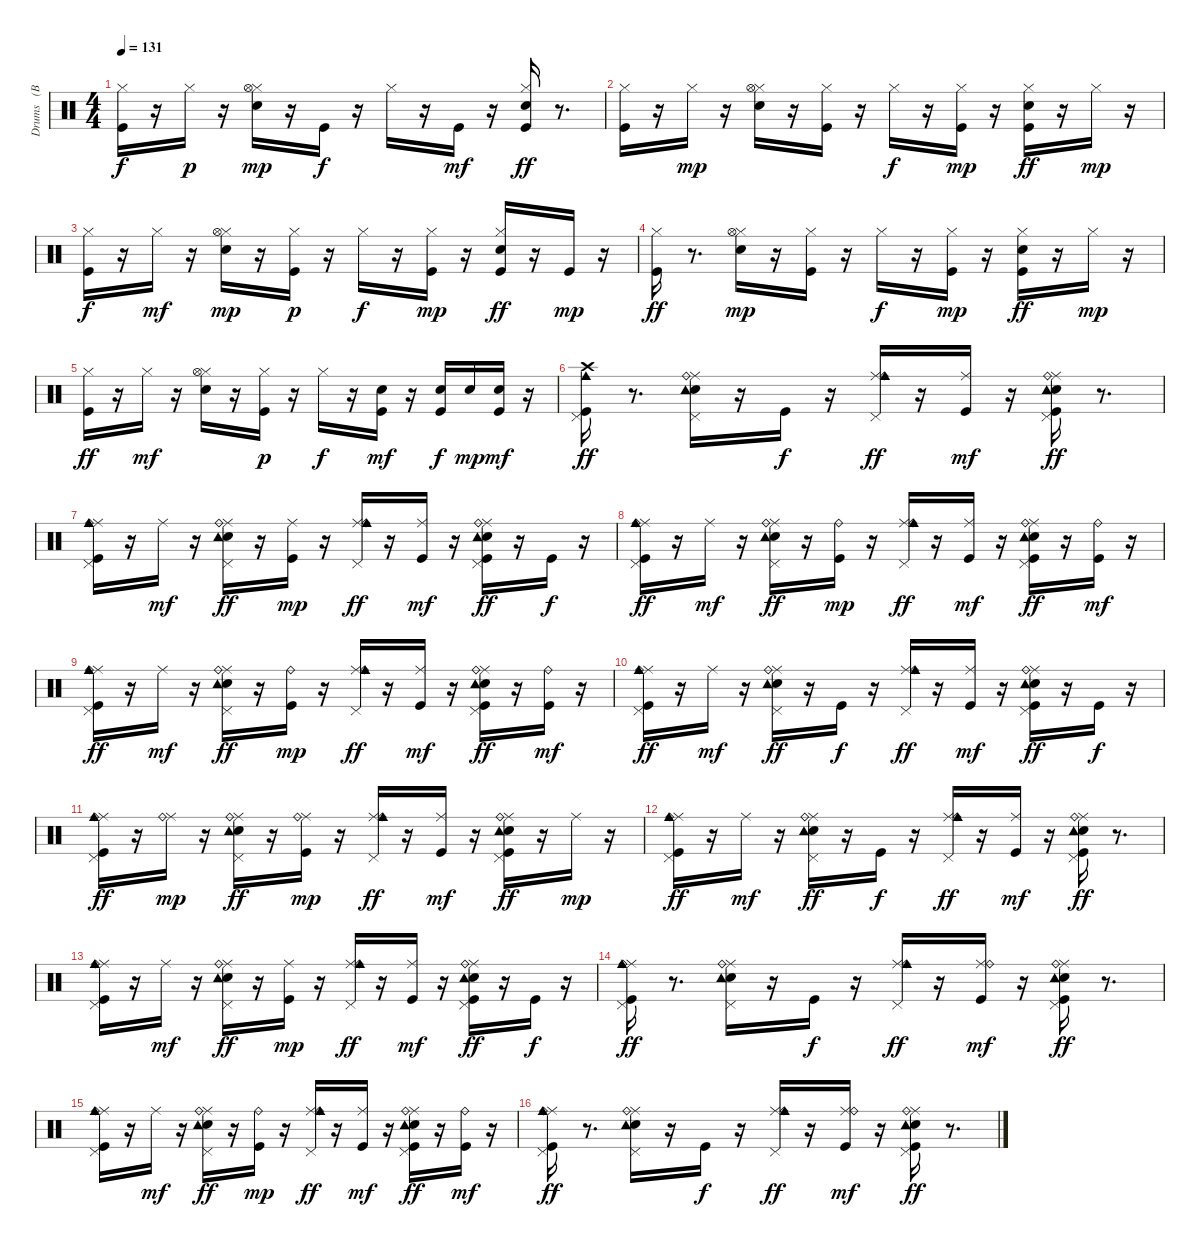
\track ("Drums   (BB)" "Drums   (B") {instrument percussion}
\staff {score}
\articulation defaults
\ts (4 4)
\tempo 131
\clef neutral
\ks c
("Kick (hit)" "Hi-Hat (closed)").16{dy f} r.16 "Hi-Hat (closed)".16{dy p} r.16 ("Snare (hit) 2" "Hi-Hat (closed)" "Hi-Hat (open)").16{dy mp} r.16 "Kick (hit)".16{dy f} r.16 "Hi-Hat (closed)".16 r.16 "Kick (hit)".16{dy mf} r.16 ("Kick (hit)" "Snare (hit) 2" "Hi-Hat (closed)").16{dy ff} r.8{d} |
("Kick (hit)" "Hi-Hat (closed)").16 r.16 "Hi-Hat (closed)".16{dy mp} r.16 ("Snare (hit) 2" "Hi-Hat (closed)" "Hi-Hat (open)").16 r.16 ("Kick (hit)" "Hi-Hat (closed)").16 r.16 "Hi-Hat (closed)".16{dy f} r.16 ("Kick (hit)" "Hi-Hat (closed)").16{dy mp} r.16 ("Kick (hit)" "Snare (hit) 2" "Hi-Hat (closed)").16{dy ff} r.16 "Hi-Hat (closed)".16{dy mp} r.16 |
("Kick (hit)" "Hi-Hat (closed)").16{dy f} r.16 "Hi-Hat (closed)".16{dy mf} r.16 ("Snare (hit) 2" "Hi-Hat (closed)" "Hi-Hat (open)").16{dy mp} r.16 ("Kick (hit)" "Hi-Hat (closed)").16{dy p} r.16 "Hi-Hat (closed)".16{dy f} r.16 ("Kick (hit)" "Hi-Hat (closed)").16{dy mp} r.16 ("Kick (hit)" "Snare (hit) 2" "Hi-Hat (closed)").16{dy ff} r.16 "Kick (hit)".16{dy mp} r.16 |
("Kick (hit)" "Hi-Hat (closed)").16{dy ff} r.8{d} ("Snare (hit) 2" "Hi-Hat (closed)" "Hi-Hat (open)").16{dy mp} r.16 ("Kick (hit)" "Hi-Hat (closed)").16 r.16 "Hi-Hat (closed)".16{dy f} r.16 ("Kick (hit)" "Hi-Hat (closed)").16{dy mp} r.16 ("Kick (hit)" "Snare (hit) 2" "Hi-Hat (closed)").16{dy ff} r.16 "Hi-Hat (closed)".16{dy mp} r.16 |
("Kick (hit)" "Hi-Hat (closed)").16{dy ff} r.16 "Hi-Hat (closed)".16{dy mf} r.16 ("Snare (hit) 2" "Hi-Hat (closed)" "Hi-Hat (open)").16 r.16 ("Kick (hit)" "Hi-Hat (closed)").16{dy p} r.16 "Hi-Hat (closed)".16{dy f} r.16 ("Kick (hit)" "Snare (hit) 2").16{dy mf} r.16 ("Kick (hit)" "Snare (hit) 2").16{dy f} "Snare (hit) 2".16{dy mp} ("Kick (hit)" "Snare (hit) 2").16{dy mf} r.16 |
("Kick (hit)" "Pedal Hi-Hat (hit)" "Crash high (hit)" "Cowbell medium (hit)").16{dy ff} r.8{d} ("Snare (hit) 2" "Tambourine (hit)" "Pedal Hi-Hat (hit)" "Ride (middle)" "Ride (bell)").16 r.16 "Kick (hit)".16{dy f} r.16 ("Pedal Hi-Hat (hit)" "Ride (middle)" "Ride (bell)" "Cowbell medium (hit)").16{dy ff} r.16 ("Kick (hit)" "Ride (middle)").16{dy mf} r.16 ("Kick (hit)" "Snare (hit) 2" "Tambourine (hit)" "Pedal Hi-Hat (hit)" "Ride (middle)" "Ride (bell)").16{dy ff} r.8{d} |
("Kick (hit)" "Pedal Hi-Hat (hit)" "Ride (middle)" "Ride (bell)" "Cowbell medium (hit)").16 r.16 "Ride (middle)".16{dy mf} r.16 ("Snare (hit) 2" "Tambourine (hit)" "Pedal Hi-Hat (hit)" "Ride (middle)" "Ride (bell)").16{dy ff} r.16 ("Kick (hit)" "Ride (middle)").16{dy mp} r.16 ("Pedal Hi-Hat (hit)" "Ride (middle)" "Ride (bell)" "Cowbell medium (hit)").16{dy ff} r.16 ("Kick (hit)" "Ride (middle)").16{dy mf} r.16 ("Kick (hit)" "Snare (hit) 2" "Tambourine (hit)" "Pedal Hi-Hat (hit)" "Ride (middle)" "Ride (bell)").16{dy ff} r.16 "Kick (hit)".16{dy f} r.16 |
("Kick (hit)" "Pedal Hi-Hat (hit)" "Ride (middle)" "Ride (bell)" "Cowbell medium (hit)").16{dy ff} r.16 "Ride (middle)".16{dy mf} r.16 ("Snare (hit) 2" "Tambourine (hit)" "Pedal Hi-Hat (hit)" "Ride (middle)" "Ride (bell)").16{dy ff} r.16 ("Kick (hit)" "Ride (bell)").16{dy mp} r.16 ("Pedal Hi-Hat (hit)" "Ride (middle)" "Ride (bell)" "Cowbell medium (hit)").16{dy ff} r.16 ("Kick (hit)" "Ride (middle)").16{dy mf} r.16 ("Kick (hit)" "Snare (hit) 2" "Tambourine (hit)" "Pedal Hi-Hat (hit)" "Ride (middle)" "Ride (bell)").16{dy ff} r.16 ("Kick (hit)" "Ride (bell)").16{dy mf} r.16 |
("Kick (hit)" "Pedal Hi-Hat (hit)" "Ride (middle)" "Ride (bell)" "Cowbell medium (hit)").16{dy ff} r.16 "Ride (middle)".16{dy mf} r.16 ("Snare (hit) 2" "Tambourine (hit)" "Pedal Hi-Hat (hit)" "Ride (middle)" "Ride (bell)").16{dy ff} r.16 ("Kick (hit)" "Ride (bell)").16{dy mp} r.16 ("Pedal Hi-Hat (hit)" "Ride (middle)" "Ride (bell)" "Cowbell medium (hit)").16{dy ff} r.16 ("Kick (hit)" "Ride (middle)").16{dy mf} r.16 ("Kick (hit)" "Snare (hit) 2" "Tambourine (hit)" "Pedal Hi-Hat (hit)" "Ride (middle)" "Ride (bell)").16{dy ff} r.16 ("Kick (hit)" "Ride (bell)").16{dy mf} r.16 |
("Kick (hit)" "Pedal Hi-Hat (hit)" "Ride (middle)" "Ride (bell)" "Cowbell medium (hit)").16{dy ff} r.16 "Ride (middle)".16{dy mf} r.16 ("Snare (hit) 2" "Tambourine (hit)" "Pedal Hi-Hat (hit)" "Ride (middle)" "Ride (bell)").16{dy ff} r.16 "Kick (hit)".16{dy f} r.16 ("Pedal Hi-Hat (hit)" "Ride (middle)" "Ride (bell)" "Cowbell medium (hit)").16{dy ff} r.16 ("Kick (hit)" "Ride (middle)").16{dy mf} r.16 ("Kick (hit)" "Snare (hit) 2" "Tambourine (hit)" "Pedal Hi-Hat (hit)" "Ride (middle)" "Ride (bell)").16{dy ff} r.16 "Kick (hit)".16{dy f} r.16 |
("Kick (hit)" "Pedal Hi-Hat (hit)" "Ride (middle)" "Ride (bell)" "Cowbell medium (hit)").16{dy ff} r.16 ("Ride (middle)" "Ride (bell)").16{dy mp} r.16 ("Snare (hit) 2" "Tambourine (hit)" "Pedal Hi-Hat (hit)" "Ride (middle)" "Ride (bell)").16{dy ff} r.16 ("Kick (hit)" "Ride (middle)" "Ride (bell)").16{dy mp} r.16 ("Pedal Hi-Hat (hit)" "Ride (middle)" "Ride (bell)" "Cowbell medium (hit)").16{dy ff} r.16 ("Kick (hit)" "Ride (middle)").16{dy mf} r.16 ("Kick (hit)" "Snare (hit) 2" "Tambourine (hit)" "Pedal Hi-Hat (hit)" "Ride (middle)" "Ride (bell)").16{dy ff} r.16 "Ride (middle)".16{dy mp} r.16 |
("Kick (hit)" "Pedal Hi-Hat (hit)" "Ride (middle)" "Ride (bell)" "Cowbell medium (hit)").16{dy ff} r.16 "Ride (middle)".16{dy mf} r.16 ("Snare (hit) 2" "Tambourine (hit)" "Pedal Hi-Hat (hit)" "Ride (middle)" "Ride (bell)").16{dy ff} r.16 "Kick (hit)".16{dy f} r.16 ("Pedal Hi-Hat (hit)" "Ride (middle)" "Ride (bell)" "Cowbell medium (hit)").16{dy ff} r.16 ("Kick (hit)" "Ride (middle)").16{dy mf} r.16 ("Kick (hit)" "Snare (hit) 2" "Tambourine (hit)" "Pedal Hi-Hat (hit)" "Ride (middle)" "Ride (bell)").16{dy ff} r.8{d} |
("Kick (hit)" "Pedal Hi-Hat (hit)" "Ride (middle)" "Ride (bell)" "Cowbell medium (hit)").16 r.16 "Ride (middle)".16{dy mf} r.16 ("Snare (hit) 2" "Tambourine (hit)" "Pedal Hi-Hat (hit)" "Ride (middle)" "Ride (bell)").16{dy ff} r.16 ("Kick (hit)" "Ride (middle)").16{dy mp} r.16 ("Pedal Hi-Hat (hit)" "Ride (middle)" "Ride (bell)" "Cowbell medium (hit)").16{dy ff} r.16 ("Kick (hit)" "Ride (middle)").16{dy mf} r.16 ("Kick (hit)" "Snare (hit) 2" "Tambourine (hit)" "Pedal Hi-Hat (hit)" "Ride (middle)" "Ride (bell)").16{dy ff} r.16 "Kick (hit)".16{dy f} r.16 |
("Kick (hit)" "Pedal Hi-Hat (hit)" "Ride (middle)" "Ride (bell)" "Cowbell medium (hit)").16{dy ff} r.8{d} ("Snare (hit) 2" "Tambourine (hit)" "Pedal Hi-Hat (hit)" "Ride (middle)" "Ride (bell)").16 r.16 "Kick (hit)".16{dy f} r.16 ("Pedal Hi-Hat (hit)" "Ride (middle)" "Ride (bell)" "Cowbell medium (hit)").16{dy ff} r.16 ("Kick (hit)" "Ride (middle)" "Ride (bell)").16{dy mf} r.16 ("Kick (hit)" "Snare (hit) 2" "Tambourine (hit)" "Pedal Hi-Hat (hit)" "Ride (middle)" "Ride (bell)").16{dy ff} r.8{d} |
("Kick (hit)" "Pedal Hi-Hat (hit)" "Ride (middle)" "Ride (bell)" "Cowbell medium (hit)").16 r.16 "Ride (middle)".16{dy mf} r.16 ("Snare (hit) 2" "Tambourine (hit)" "Pedal Hi-Hat (hit)" "Ride (middle)" "Ride (bell)").16{dy ff} r.16 ("Kick (hit)" "Ride (bell)").16{dy mp} r.16 ("Pedal Hi-Hat (hit)" "Ride (middle)" "Ride (bell)" "Cowbell medium (hit)").16{dy ff} r.16 ("Kick (hit)" "Ride (middle)").16{dy mf} r.16 ("Kick (hit)" "Snare (hit) 2" "Tambourine (hit)" "Pedal Hi-Hat (hit)" "Ride (middle)" "Ride (bell)").16{dy ff} r.16 ("Kick (hit)" "Ride (bell)").16{dy mf} r.16 |
("Kick (hit)" "Pedal Hi-Hat (hit)" "Ride (middle)" "Ride (bell)" "Cowbell medium (hit)").16{dy ff} r.8{d} ("Snare (hit) 2" "Tambourine (hit)" "Pedal Hi-Hat (hit)" "Ride (middle)" "Ride (bell)").16 r.16 "Kick (hit)".16{dy f} r.16 ("Pedal Hi-Hat (hit)" "Ride (middle)" "Ride (bell)" "Cowbell medium (hit)").16{dy ff} r.16 ("Kick (hit)" "Ride (middle)" "Ride (bell)").16{dy mf} r.16 ("Kick (hit)" "Snare (hit) 2" "Tambourine (hit)" "Pedal Hi-Hat (hit)" "Ride (middle)" "Ride (bell)").16{dy ff} r.8{d}
